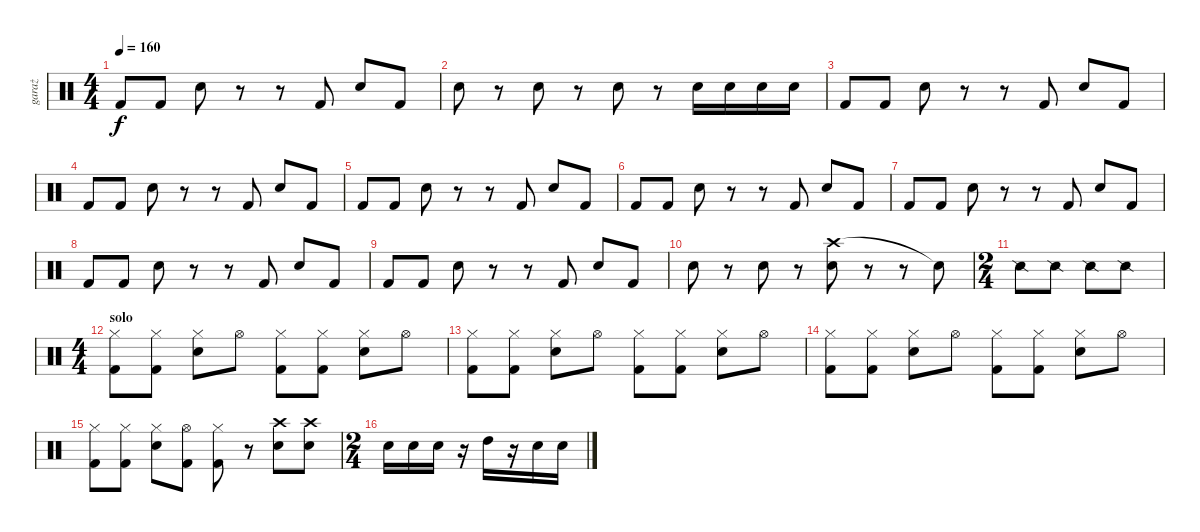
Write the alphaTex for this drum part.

\track ("garaż" "garaż") {instrument percussion}
\staff {score}
\articulation defaults
\ts (4 4)
\tempo 160
\clef neutral
\ks c "Kick (hit) 2".8{dy f} "Kick (hit) 2".8 "Snare (hit) 2".8
r.8 r.8 "Kick (hit) 2".8 "Snare (hit) 2".8 "Kick (hit) 2".8 |
"Snare (hit) 2".8 r.8 "Snare (hit) 2".8 r.8 "Snare (hit) 2".8 r.8 "Snare (hit) 2".16 "Snare (hit) 2".16 "Snare (hit) 2".16 "Snare (hit) 2".16 |
"Kick (hit) 2".8 "Kick (hit) 2".8 "Snare (hit) 2".8 r.8 r.8 "Kick (hit) 2".8 "Snare (hit) 2".8 "Kick (hit) 2".8 |
"Kick (hit) 2".8 "Kick (hit) 2".8 "Snare (hit) 2".8 r.8 r.8 "Kick (hit) 2".8 "Snare (hit) 2".8 "Kick (hit) 2".8 |
"Kick (hit) 2".8 "Kick (hit) 2".8 "Snare (hit) 2".8 r.8 r.8 "Kick (hit) 2".8 "Snare (hit) 2".8 "Kick (hit) 2".8 |
"Kick (hit) 2".8 "Kick (hit) 2".8 "Snare (hit) 2".8 r.8 r.8 "Kick (hit) 2".8 "Snare (hit) 2".8 "Kick (hit) 2".8 |
"Kick (hit) 2".8 "Kick (hit) 2".8 "Snare (hit) 2".8 r.8 r.8 "Kick (hit) 2".8 "Snare (hit) 2".8 "Kick (hit) 2".8 |
"Kick (hit) 2".8 "Kick (hit) 2".8 "Snare (hit) 2".8 r.8 r.8 "Kick (hit) 2".8 "Snare (hit) 2".8 "Kick (hit) 2".8 |
"Kick (hit) 2".8 "Kick (hit) 2".8 "Snare (hit) 2".8 r.8 r.8 "Kick (hit) 2".8 "Snare (hit) 2".8 "Kick (hit) 2".8 |
"Snare (hit) 2".8 r.8 "Snare (hit) 2".8 r.8 ("Crash high (hit)" "Snare (hit) 2").8 r.8 r.8 "Snare (hit)"{t}.8 |
\ts (2 4)
"Snare (side stick) 2".8 "Snare (side stick) 2".8 "Snare (side stick) 2".8 "Snare (side stick) 2".8 |
\ts (4 4)
\section ("" "solo")
("Hi-Hat (closed)" "Kick (hit) 2").8 ("Hi-Hat (closed)" "Kick (hit) 2").8 ("Hi-Hat (closed)" "Snare (hit) 2").8 "Hi-Hat (open)".8 ("Hi-Hat (closed)" "Kick (hit) 2").8 ("Hi-Hat (closed)" "Kick (hit) 2").8 ("Hi-Hat (closed)" "Snare (hit) 2").8 "Hi-Hat (open)".8 |
("Hi-Hat (closed)" "Kick (hit) 2").8 ("Hi-Hat (closed)" "Kick (hit) 2").8 ("Hi-Hat (closed)" "Snare (hit) 2").8 "Hi-Hat (open)".8 ("Hi-Hat (closed)" "Kick (hit) 2").8 ("Hi-Hat (closed)" "Kick (hit) 2").8 ("Hi-Hat (closed)" "Snare (hit) 2").8 "Hi-Hat (open)".8 |
("Hi-Hat (closed)" "Kick (hit) 2").8 ("Hi-Hat (closed)" "Kick (hit) 2").8 ("Hi-Hat (closed)" "Snare (hit) 2").8 "Hi-Hat (open)".8 ("Hi-Hat (closed)" "Kick (hit) 2").8 ("Hi-Hat (closed)" "Kick (hit) 2").8 ("Hi-Hat (closed)" "Snare (hit) 2").8 "Hi-Hat (open)".8 |
("Hi-Hat (closed)" "Kick (hit) 2").8 ("Hi-Hat (closed)" "Kick (hit) 2").8 ("Hi-Hat (closed)" "Snare (hit) 2").8 ("Hi-Hat (open)" "Kick (hit) 2").8 ("Hi-Hat (closed)" "Kick (hit) 2").8 r.8 ("Crash high (hit)" "Snare (hit) 2").8 ("Crash high (hit)" "Snare (hit) 2").8 |
\ts (2 4)
"Snare (hit) 2".16 "Snare (hit) 2".16 "Snare (hit) 2".16 r.16 "High Tom (hit)".16 r.16 "Snare (hit) 2".16 "Snare (hit) 2".16
